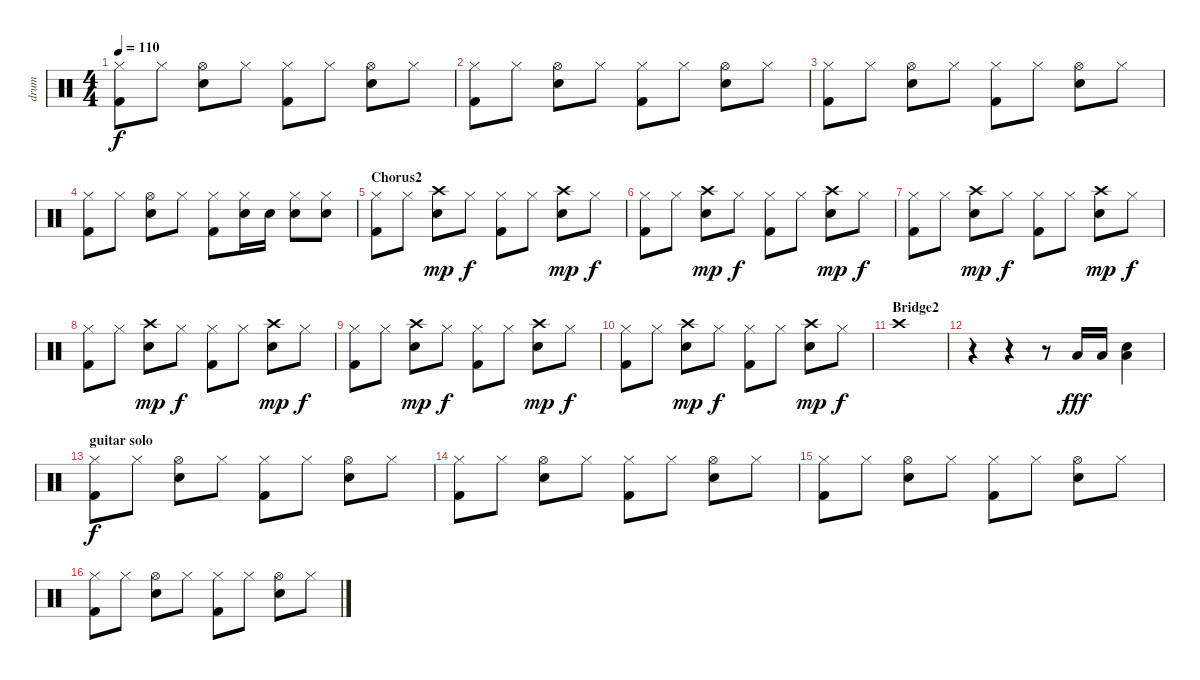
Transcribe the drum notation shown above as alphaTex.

\track ("drum" "drum") {instrument percussion}
\staff {score}
\articulation defaults
\ts (4 4)
\tempo 110
\clef neutral
\ks c
("Hi-Hat (closed)" "Kick (hit) 2").8{dy f} "Hi-Hat (closed)".8 ("Hi-Hat (open)" "Electric Snare (hit)").8 "Hi-Hat (closed)".8 ("Hi-Hat (closed)" "Kick (hit) 2").8 "Hi-Hat (closed)".8 ("Hi-Hat (open)" "Electric Snare (hit)").8 "Hi-Hat (closed)".8 |
("Hi-Hat (closed)" "Kick (hit) 2").8 "Hi-Hat (closed)".8 ("Hi-Hat (open)" "Electric Snare (hit)").8 "Hi-Hat (closed)".8 ("Hi-Hat (closed)" "Kick (hit) 2").8 "Hi-Hat (closed)".8 ("Hi-Hat (open)" "Electric Snare (hit)").8 "Hi-Hat (closed)".8 |
("Hi-Hat (closed)" "Kick (hit) 2").8 "Hi-Hat (closed)".8 ("Hi-Hat (open)" "Electric Snare (hit)").8 "Hi-Hat (closed)".8 ("Hi-Hat (closed)" "Kick (hit) 2").8 "Hi-Hat (closed)".8 ("Hi-Hat (open)" "Electric Snare (hit)").8 "Hi-Hat (closed)".8 |
("Hi-Hat (closed)" "Kick (hit) 2").8 "Hi-Hat (closed)".8 ("Hi-Hat (open)" "Electric Snare (hit)").8 "Hi-Hat (closed)".8 ("Hi-Hat (closed)" "Kick (hit) 2").8 ("Hi-Hat (closed)" "Electric Snare (hit)").16 "Electric Snare (hit)".16 ("Hi-Hat (closed)" "Electric Snare (hit)").8 ("Hi-Hat (closed)" "Electric Snare (hit)").8 |
\section ("" "Chorus2")
("Hi-Hat (closed)" "Kick (hit) 2").8 "Hi-Hat (closed)".8 ("Crash high (hit)" "Electric Snare (hit)").8{dy mp} "Hi-Hat (closed)".8{dy f} ("Hi-Hat (closed)" "Kick (hit) 2").8 "Hi-Hat (closed)".8 ("Crash high (hit)" "Electric Snare (hit)").8{dy mp} "Hi-Hat (closed)".8{dy f} |
("Hi-Hat (closed)" "Kick (hit) 2").8 "Hi-Hat (closed)".8 ("Crash high (hit)" "Electric Snare (hit)").8{dy mp} "Hi-Hat (closed)".8{dy f} ("Hi-Hat (closed)" "Kick (hit) 2").8 "Hi-Hat (closed)".8 ("Crash high (hit)" "Electric Snare (hit)").8{dy mp} "Hi-Hat (closed)".8{dy f} |
("Hi-Hat (closed)" "Kick (hit) 2").8 "Hi-Hat (closed)".8 ("Crash high (hit)" "Electric Snare (hit)").8{dy mp} "Hi-Hat (closed)".8{dy f} ("Hi-Hat (closed)" "Kick (hit) 2").8 "Hi-Hat (closed)".8 ("Crash high (hit)" "Electric Snare (hit)").8{dy mp} "Hi-Hat (closed)".8{dy f} |
("Hi-Hat (closed)" "Kick (hit) 2").8 "Hi-Hat (closed)".8 ("Crash high (hit)" "Electric Snare (hit)").8{dy mp} "Hi-Hat (closed)".8{dy f} ("Hi-Hat (closed)" "Kick (hit) 2").8 "Hi-Hat (closed)".8 ("Crash high (hit)" "Electric Snare (hit)").8{dy mp} "Hi-Hat (closed)".8{dy f} |
("Hi-Hat (closed)" "Kick (hit) 2").8 "Hi-Hat (closed)".8 ("Crash high (hit)" "Electric Snare (hit)").8{dy mp} "Hi-Hat (closed)".8{dy f} ("Hi-Hat (closed)" "Kick (hit) 2").8 "Hi-Hat (closed)".8 ("Crash high (hit)" "Electric Snare (hit)").8{dy mp} "Hi-Hat (closed)".8{dy f} |
("Hi-Hat (closed)" "Kick (hit) 2").8 "Hi-Hat (closed)".8 ("Crash high (hit)" "Electric Snare (hit)").8{dy mp} "Hi-Hat (closed)".8{dy f} ("Hi-Hat (closed)" "Kick (hit) 2").8 "Hi-Hat (closed)".8 ("Crash high (hit)" "Electric Snare (hit)").8{dy mp} "Hi-Hat (closed)".8{dy f} |
\section ("" "Bridge2")
"Crash high (hit)".1 |
r.4 r.4 r.8 "Low Floor Tom (hit)".16{dy fff} "Low Floor Tom (hit)".16 ("Electric Snare (hit)" "Low Tom (hit)").4 |
\section ("" "guitar solo")
("Hi-Hat (closed)" "Kick (hit) 2").8{dy f} "Hi-Hat (closed)".8 ("Hi-Hat (open)" "Electric Snare (hit)").8 "Hi-Hat (closed)".8 ("Hi-Hat (closed)" "Kick (hit) 2").8 "Hi-Hat (closed)".8 ("Hi-Hat (open)" "Electric Snare (hit)").8 "Hi-Hat (closed)".8 |
("Hi-Hat (closed)" "Kick (hit) 2").8 "Hi-Hat (closed)".8 ("Hi-Hat (open)" "Electric Snare (hit)").8 "Hi-Hat (closed)".8 ("Hi-Hat (closed)" "Kick (hit) 2").8 "Hi-Hat (closed)".8 ("Hi-Hat (open)" "Electric Snare (hit)").8 "Hi-Hat (closed)".8 |
("Hi-Hat (closed)" "Kick (hit) 2").8 "Hi-Hat (closed)".8 ("Hi-Hat (open)" "Electric Snare (hit)").8 "Hi-Hat (closed)".8 ("Hi-Hat (closed)" "Kick (hit) 2").8 "Hi-Hat (closed)".8 ("Hi-Hat (open)" "Electric Snare (hit)").8 "Hi-Hat (closed)".8 |
("Hi-Hat (closed)" "Kick (hit) 2").8 "Hi-Hat (closed)".8 ("Hi-Hat (open)" "Electric Snare (hit)").8 "Hi-Hat (closed)".8 ("Hi-Hat (closed)" "Kick (hit) 2").8 "Hi-Hat (closed)".8 ("Hi-Hat (open)" "Electric Snare (hit)").8 "Hi-Hat (closed)".8
